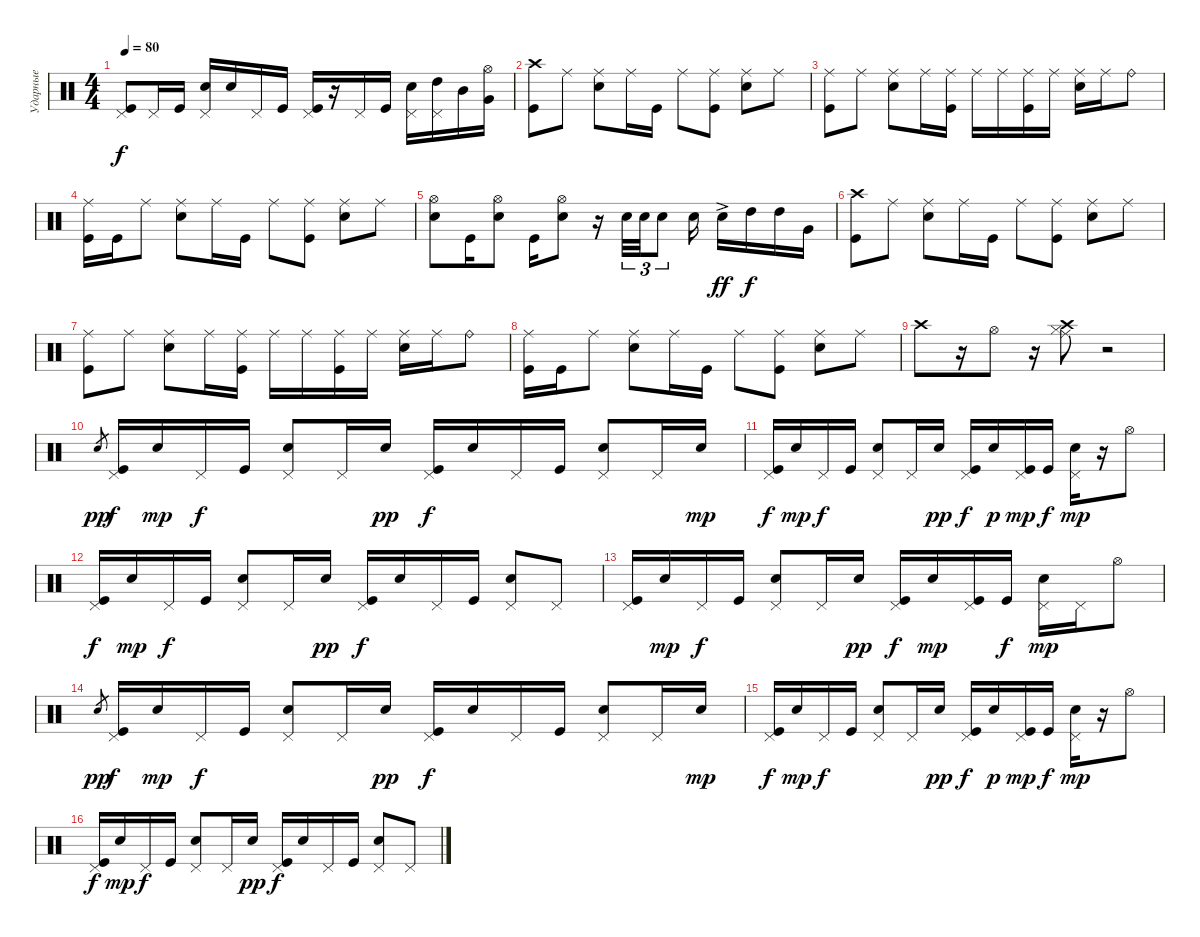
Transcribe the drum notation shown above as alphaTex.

\track ("Ударные" "Ударные") {instrument percussion}
\staff {score}
\articulation defaults
\ts (4 4)
\tempo 80
\clef neutral
\ks c
("Pedal Hi-Hat (hit)" "Kick (hit)").8{dy f} "Pedal Hi-Hat (hit)".16 "Kick (hit)".16 ("Pedal Hi-Hat (hit)" "Snare (hit) 2").16 "Snare (hit) 2".16 "Pedal Hi-Hat (hit)".16 "Kick (hit)".16 ("Pedal Hi-Hat (hit)" "Kick (hit)").16 r.16 "Pedal Hi-Hat (hit)".16 "Kick (hit)".16 ("Pedal Hi-Hat (hit)" "Snare (hit) 2").16 ("Pedal Hi-Hat (hit)" "High Tom (hit)").16 "Mid Tom (hit)".16 ("Hi-Hat (open)" "Very Low Tom (hit)").16 |
("Crash high (hit)" "Kick (hit)").8 "Ride (middle)".8 ("Ride (middle)" "Snare (hit) 2").8 "Ride (middle)".16 "Kick (hit)".16 "Ride (middle)".8 ("Ride (middle)" "Kick (hit)").8 ("Ride (middle)" "Snare (hit) 2").8 "Ride (middle)".8 |
("Ride (middle)" "Kick (hit)").8 "Ride (middle)".8 ("Ride (middle)" "Snare (hit) 2").8 "Ride (middle)".16 ("Ride (middle)" "Kick (hit)").16 "Ride (middle)".16 "Ride (middle)".16 ("Ride (middle)" "Kick (hit)").16 "Ride (middle)".16 ("Ride (middle)" "Snare (hit) 2").16 "Ride (middle)".16 "Ride (bell)".8 |
("Ride (middle)" "Kick (hit)").16 "Kick (hit)".16 "Ride (middle)".8 ("Ride (middle)" "Snare (hit) 2").8 "Ride (middle)".16 "Kick (hit)".16 "Ride (middle)".8 ("Ride (middle)" "Kick (hit)").8 ("Ride (middle)" "Snare (hit) 2").8 "Ride (middle)".8 |
("Hi-Hat (open)" "Snare (hit) 2").8 "Kick (hit)".16 ("Hi-Hat (open)" "Snare (hit) 2").8 "Kick (hit)".16 ("Hi-Hat (open)" "Snare (hit) 2").8 r.16 "Snare (hit) 2".32{tu (3 2)} "Snare (hit) 2".32{tu (3 2)} "Snare (hit) 2".8{tu (3 2)} "Snare (hit) 2".16 "Snare (hit) 2"{ac}.16{dy ff} "High Tom (hit)".16{dy f} "High Tom (hit)".16 "Very Low Tom (hit)".16 |
("Crash high (hit)" "Kick (hit)").8 "Ride (middle)".8 ("Ride (middle)" "Snare (hit) 2").8 "Ride (middle)".16 "Kick (hit)".16 "Ride (middle)".8 ("Ride (middle)" "Kick (hit)").8 ("Ride (middle)" "Snare (hit) 2").8 "Ride (middle)".8 |
("Ride (middle)" "Kick (hit)").8 "Ride (middle)".8 ("Ride (middle)" "Snare (hit) 2").8 "Ride (middle)".16 ("Ride (middle)" "Kick (hit)").16 "Ride (middle)".16 "Ride (middle)".16 ("Ride (middle)" "Kick (hit)").16 "Ride (middle)".16 ("Ride (middle)" "Snare (hit) 2").16 "Ride (middle)".16 "Ride (bell)".8 |
("Ride (middle)" "Kick (hit)").16 "Kick (hit)".16 "Ride (middle)".8 ("Ride (middle)" "Snare (hit) 2").8 "Ride (middle)".16 "Kick (hit)".16 "Ride (middle)".8 ("Ride (middle)" "Kick (hit)").8 ("Ride (middle)" "Snare (hit) 2").8 "Ride (middle)".8 |
"Crash high (hit)".8 r.16 "Hi-Hat (open)".8 r.16 ("Ride (middle)" "Hi-Hat (closed)" "Crash high (hit)").8 r.2 |
"Snare (hit) 2"{h x}.8{gr dy pp} ("Pedal Hi-Hat (hit)" "Kick (hit)").16{dy f} "Snare (hit) 2".16{dy mp} "Pedal Hi-Hat (hit)".16{dy f} "Kick (hit)".16 ("Pedal Hi-Hat (hit)" "Snare (hit) 2").8 "Pedal Hi-Hat (hit)".16 "Snare (hit) 2".16{dy pp} ("Pedal Hi-Hat (hit)" "Kick (hit)").16{dy f} "Snare (hit) 2".16 "Pedal Hi-Hat (hit)".16 "Kick (hit)".16 ("Pedal Hi-Hat (hit)" "Snare (hit) 2").8 "Pedal Hi-Hat (hit)".16 "Snare (hit) 2".16{dy mp} |
("Pedal Hi-Hat (hit)" "Kick (hit)").16{dy f} "Snare (hit) 2".16{dy mp} "Pedal Hi-Hat (hit)".16{dy f} "Kick (hit)".16 ("Pedal Hi-Hat (hit)" "Snare (hit) 2").8 "Pedal Hi-Hat (hit)".16 "Snare (hit) 2".16{dy pp} ("Pedal Hi-Hat (hit)" "Kick (hit)").16{dy f} "Snare (hit) 2".16{dy p} ("Pedal Hi-Hat (hit)" "Kick (hit)").16{dy mp} "Kick (hit)".16{dy f} ("Pedal Hi-Hat (hit)" "Snare (hit) 2").16{dy mp} r.16 "Hi-Hat (open)".8 |
("Pedal Hi-Hat (hit)" "Kick (hit)").16{dy f} "Snare (hit) 2".16{dy mp} "Pedal Hi-Hat (hit)".16{dy f} "Kick (hit)".16 ("Pedal Hi-Hat (hit)" "Snare (hit) 2").8 "Pedal Hi-Hat (hit)".16 "Snare (hit) 2".16{dy pp} ("Pedal Hi-Hat (hit)" "Kick (hit)").16{dy f} "Snare (hit) 2".16 "Pedal Hi-Hat (hit)".16 "Kick (hit)".16 ("Pedal Hi-Hat (hit)" "Snare (hit) 2").8 "Pedal Hi-Hat (hit)".8 |
("Pedal Hi-Hat (hit)" "Kick (hit)").16 "Snare (hit) 2".16{dy mp} "Pedal Hi-Hat (hit)".16{dy f} "Kick (hit)".16 ("Pedal Hi-Hat (hit)" "Snare (hit) 2").8 "Pedal Hi-Hat (hit)".16 "Snare (hit) 2".16{dy pp} ("Pedal Hi-Hat (hit)" "Kick (hit)").16{dy f} "Snare (hit) 2".16{dy mp} ("Pedal Hi-Hat (hit)" "Kick (hit)").16 "Kick (hit)".16{dy f} ("Pedal Hi-Hat (hit)" "Snare (hit) 2").16{dy mp} "Pedal Hi-Hat (hit)".16 "Hi-Hat (open)".8 |
"Snare (hit) 2"{h x}.8{gr dy pp} ("Pedal Hi-Hat (hit)" "Kick (hit)").16{dy f} "Snare (hit) 2".16{dy mp} "Pedal Hi-Hat (hit)".16{dy f} "Kick (hit)".16 ("Pedal Hi-Hat (hit)" "Snare (hit) 2").8 "Pedal Hi-Hat (hit)".16 "Snare (hit) 2".16{dy pp} ("Pedal Hi-Hat (hit)" "Kick (hit)").16{dy f} "Snare (hit) 2".16 "Pedal Hi-Hat (hit)".16 "Kick (hit)".16 ("Pedal Hi-Hat (hit)" "Snare (hit) 2").8 "Pedal Hi-Hat (hit)".16 "Snare (hit) 2".16{dy mp} |
("Pedal Hi-Hat (hit)" "Kick (hit)").16{dy f} "Snare (hit) 2".16{dy mp} "Pedal Hi-Hat (hit)".16{dy f} "Kick (hit)".16 ("Pedal Hi-Hat (hit)" "Snare (hit) 2").8 "Pedal Hi-Hat (hit)".16 "Snare (hit) 2".16{dy pp} ("Pedal Hi-Hat (hit)" "Kick (hit)").16{dy f} "Snare (hit) 2".16{dy p} ("Pedal Hi-Hat (hit)" "Kick (hit)").16{dy mp} "Kick (hit)".16{dy f} ("Pedal Hi-Hat (hit)" "Snare (hit) 2").16{dy mp} r.16 "Hi-Hat (open)".8 |
("Pedal Hi-Hat (hit)" "Kick (hit)").16{dy f} "Snare (hit) 2".16{dy mp} "Pedal Hi-Hat (hit)".16{dy f} "Kick (hit)".16 ("Pedal Hi-Hat (hit)" "Snare (hit) 2").8 "Pedal Hi-Hat (hit)".16 "Snare (hit) 2".16{dy pp} ("Pedal Hi-Hat (hit)" "Kick (hit)").16{dy f} "Snare (hit) 2".16 "Pedal Hi-Hat (hit)".16 "Kick (hit)".16 ("Pedal Hi-Hat (hit)" "Snare (hit) 2").8 "Pedal Hi-Hat (hit)".8
